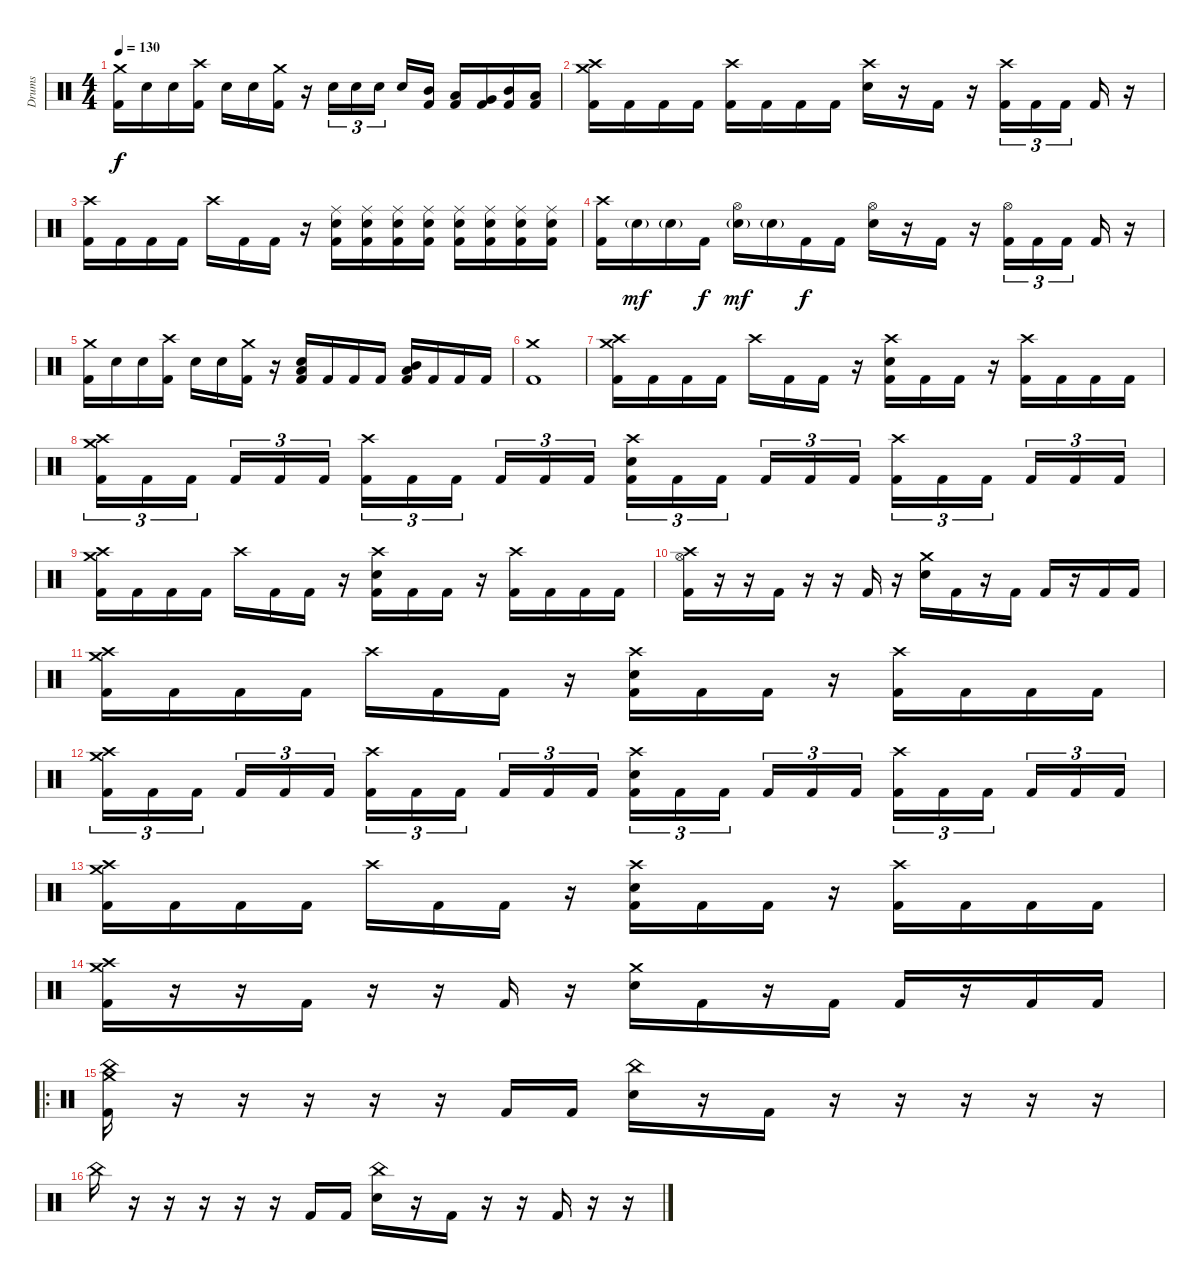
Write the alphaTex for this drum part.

\track ("Drums" "Drums") {instrument percussion}
\staff {score}
\articulation defaults
\ts (4 4)
\tempo 130
\clef neutral
\ks c
("Crash medium (hit)" "Kick (hit) 2").16{dy f} "Electric Snare (hit)".16 "Electric Snare (hit)".16 ("Crash high (hit)" "Kick (hit) 2").16 "Electric Snare (hit)".16 "Electric Snare (hit)".16 ("Crash medium (hit)" "Kick (hit) 2").16 r.16 "Electric Snare (hit)".16{tu (3 2)} "Electric Snare (hit)".16{tu (3 2)} "Electric Snare (hit)".16{tu (3 2) beam splitsecondary} "Electric Snare (hit)".16 ("Mid Tom (hit)" "Kick (hit) 2").16 ("Low Tom (hit)" "Kick (hit) 2").16 ("Very Low Tom (hit)" "Kick (hit) 2").16 ("Mid Tom (hit)" "Kick (hit) 2").16 ("Low Tom (hit)" "Kick (hit) 2").16 |
("Crash high (hit)" "Crash medium (hit)" "Kick (hit) 2").16 "Kick (hit) 2".16 "Kick (hit) 2".16 "Kick (hit) 2".16 ("Crash high (hit)" "Kick (hit) 2").16 "Kick (hit) 2".16 "Kick (hit) 2".16 "Kick (hit) 2".16 ("Crash high (hit)" "Electric Snare (hit)").16 r.16 "Kick (hit) 2".16 r.16 ("Crash high (hit)" "Kick (hit) 2").16{tu (3 2)} "Kick (hit) 2".16{tu (3 2)} "Kick (hit) 2".16{tu (3 2) beam splitsecondary} "Kick (hit) 2".16 r.16 |
("Crash high (hit)" "Kick (hit) 2").16 "Kick (hit) 2".16 "Kick (hit) 2".16 "Kick (hit) 2".16 "Crash high (hit)".16 "Kick (hit) 2".16 "Kick (hit) 2".16 r.16 ("Ride (middle)" "Electric Snare (hit)" "Kick (hit) 2").16 ("Ride (middle)" "Electric Snare (hit)" "Kick (hit) 2").16 ("Ride (middle)" "Electric Snare (hit)" "Kick (hit) 2").16 ("Ride (middle)" "Electric Snare (hit)" "Kick (hit) 2").16 ("Ride (middle)" "Electric Snare (hit)" "Kick (hit) 2").16 ("Ride (middle)" "Electric Snare (hit)" "Kick (hit) 2").16 ("Ride (middle)" "Electric Snare (hit)" "Kick (hit) 2").16 ("Ride (middle)" "Electric Snare (hit)" "Kick (hit) 2").16 |
("Crash high (hit)" "Kick (hit) 2").16 "Electric Snare (hit)"{g}.16{dy mf} "Electric Snare (hit)"{g}.16 "Kick (hit) 2".16{dy f} ("Hi-Hat (open)" "Electric Snare (hit)"{g}).16{dy mf} "Electric Snare (hit)"{g}.16 "Kick (hit) 2".16{dy f} "Kick (hit) 2".16 ("Hi-Hat (open)" "Electric Snare (hit)").16 r.16 "Kick (hit) 2".16 r.16 ("Hi-Hat (open)" "Kick (hit) 2").16{tu (3 2)} "Kick (hit) 2".16{tu (3 2)} "Kick (hit) 2".16{tu (3 2) beam splitsecondary} "Kick (hit) 2".16 r.16 |
("Crash medium (hit)" "Kick (hit) 2").16 "Electric Snare (hit)".16 "Electric Snare (hit)".16 ("Crash high (hit)" "Kick (hit) 2").16 "Electric Snare (hit)".16 "Electric Snare (hit)".16 ("Crash medium (hit)" "Kick (hit) 2").16 r.16 ("Low Tom (hit)" "Electric Snare (hit)" "Kick (hit) 2").16 "Kick (hit) 2".16 "Kick (hit) 2".16 "Kick (hit) 2".16 ("Mid Tom (hit)" "Low Tom (hit)" "Kick (hit) 2").16 "Kick (hit) 2".16 "Kick (hit) 2".16 "Kick (hit) 2".16 |
("Crash medium (hit)" "Kick (hit) 2").1 |
("Crash high (hit)" "Crash medium (hit)" "Kick (hit) 2").16 "Kick (hit) 2".16 "Kick (hit) 2".16 "Kick (hit) 2".16 "Crash high (hit)".16 "Kick (hit) 2".16 "Kick (hit) 2".16 r.16 ("Crash high (hit)" "Electric Snare (hit)" "Kick (hit) 2").16 "Kick (hit) 2".16 "Kick (hit) 2".16 r.16 ("Crash high (hit)" "Kick (hit) 2").16 "Kick (hit) 2".16 "Kick (hit) 2".16 "Kick (hit) 2".16 |
("Crash high (hit)" "Crash medium (hit)" "Kick (hit) 2").16{tu (3 2)} "Kick (hit) 2".16{tu (3 2)} "Kick (hit) 2".16{tu (3 2) beam splitsecondary} "Kick (hit) 2".16{tu (3 2)} "Kick (hit) 2".16{tu (3 2)} "Kick (hit) 2".16{tu (3 2)} ("Crash high (hit)" "Kick (hit) 2").16{tu (3 2)} "Kick (hit) 2".16{tu (3 2)} "Kick (hit) 2".16{tu (3 2) beam splitsecondary} "Kick (hit) 2".16{tu (3 2)} "Kick (hit) 2".16{tu (3 2)} "Kick (hit) 2".16{tu (3 2)} ("Crash high (hit)" "Electric Snare (hit)" "Kick (hit) 2").16{tu (3 2)} "Kick (hit) 2".16{tu (3 2)} "Kick (hit) 2".16{tu (3 2) beam splitsecondary} "Kick (hit) 2".16{tu (3 2)} "Kick (hit) 2".16{tu (3 2)} "Kick (hit) 2".16{tu (3 2)} ("Crash high (hit)" "Kick (hit) 2").16{tu (3 2)} "Kick (hit) 2".16{tu (3 2)} "Kick (hit) 2".16{tu (3 2) beam splitsecondary} "Kick (hit) 2".16{tu (3 2)} "Kick (hit) 2".16{tu (3 2)} "Kick (hit) 2".16{tu (3 2)} |
("Crash high (hit)" "Crash medium (hit)" "Kick (hit) 2").16 "Kick (hit) 2".16 "Kick (hit) 2".16 "Kick (hit) 2".16 "Crash high (hit)".16 "Kick (hit) 2".16 "Kick (hit) 2".16 r.16 ("Crash high (hit)" "Electric Snare (hit)" "Kick (hit) 2").16 "Kick (hit) 2".16 "Kick (hit) 2".16 r.16 ("Crash high (hit)" "Kick (hit) 2").16 "Kick (hit) 2".16 "Kick (hit) 2".16 "Kick (hit) 2".16 |
("Crash high (hit)" "Hi-Hat (open)" "Kick (hit) 2").16 r.16 r.16 "Kick (hit) 2".16 r.16 r.16 "Kick (hit) 2".16 r.16 ("Crash medium (hit)" "Electric Snare (hit)").16 "Kick (hit) 2".16 r.16 "Kick (hit) 2".16 "Kick (hit) 2".16 r.16 "Kick (hit) 2".16 "Kick (hit) 2".16 |
("Crash high (hit)" "Crash medium (hit)" "Kick (hit) 2").16 "Kick (hit) 2".16 "Kick (hit) 2".16 "Kick (hit) 2".16 "Crash high (hit)".16 "Kick (hit) 2".16 "Kick (hit) 2".16 r.16 ("Crash high (hit)" "Electric Snare (hit)" "Kick (hit) 2").16 "Kick (hit) 2".16 "Kick (hit) 2".16 r.16 ("Crash high (hit)" "Kick (hit) 2").16 "Kick (hit) 2".16 "Kick (hit) 2".16 "Kick (hit) 2".16 |
("Crash high (hit)" "Crash medium (hit)" "Kick (hit) 2").16{tu (3 2)} "Kick (hit) 2".16{tu (3 2)} "Kick (hit) 2".16{tu (3 2) beam splitsecondary} "Kick (hit) 2".16{tu (3 2)} "Kick (hit) 2".16{tu (3 2)} "Kick (hit) 2".16{tu (3 2)} ("Crash high (hit)" "Kick (hit) 2").16{tu (3 2)} "Kick (hit) 2".16{tu (3 2)} "Kick (hit) 2".16{tu (3 2) beam splitsecondary} "Kick (hit) 2".16{tu (3 2)} "Kick (hit) 2".16{tu (3 2)} "Kick (hit) 2".16{tu (3 2)} ("Crash high (hit)" "Electric Snare (hit)" "Kick (hit) 2").16{tu (3 2)} "Kick (hit) 2".16{tu (3 2)} "Kick (hit) 2".16{tu (3 2) beam splitsecondary} "Kick (hit) 2".16{tu (3 2)} "Kick (hit) 2".16{tu (3 2)} "Kick (hit) 2".16{tu (3 2)} ("Crash high (hit)" "Kick (hit) 2").16{tu (3 2)} "Kick (hit) 2".16{tu (3 2)} "Kick (hit) 2".16{tu (3 2) beam splitsecondary} "Kick (hit) 2".16{tu (3 2)} "Kick (hit) 2".16{tu (3 2)} "Kick (hit) 2".16{tu (3 2)} |
("Crash high (hit)" "Crash medium (hit)" "Kick (hit) 2").16 "Kick (hit) 2".16 "Kick (hit) 2".16 "Kick (hit) 2".16 "Crash high (hit)".16 "Kick (hit) 2".16 "Kick (hit) 2".16 r.16 ("Crash high (hit)" "Electric Snare (hit)" "Kick (hit) 2").16 "Kick (hit) 2".16 "Kick (hit) 2".16 r.16 ("Crash high (hit)" "Kick (hit) 2").16 "Kick (hit) 2".16 "Kick (hit) 2".16 "Kick (hit) 2".16 |
("Crash high (hit)" "Crash medium (hit)" "Kick (hit) 2").16 r.16 r.16 "Kick (hit) 2".16 r.16 r.16 "Kick (hit) 2".16 r.16 ("Crash medium (hit)" "Electric Snare (hit)").16 "Kick (hit) 2".16 r.16 "Kick (hit) 2".16 "Kick (hit) 2".16 r.16 "Kick (hit) 2".16 "Kick (hit) 2".16 |
\ro
("China (hit)" "Crash medium (hit)" "Kick (hit) 2").16 r.16 r.16 r.16 r.16 r.16 "Kick (hit) 2".16 "Kick (hit) 2".16 ("China (hit)" "Electric Snare (hit)").16 r.16 "Kick (hit) 2".16 r.16 r.16 r.16 r.16 r.16 |
"China (hit)".16 r.16 r.16 r.16 r.16 r.16 "Kick (hit) 2".16 "Kick (hit) 2".16 ("China (hit)" "Electric Snare (hit)").16 r.16 "Kick (hit) 2".16 r.16 r.16 "Kick (hit) 2".16 r.16 r.16
